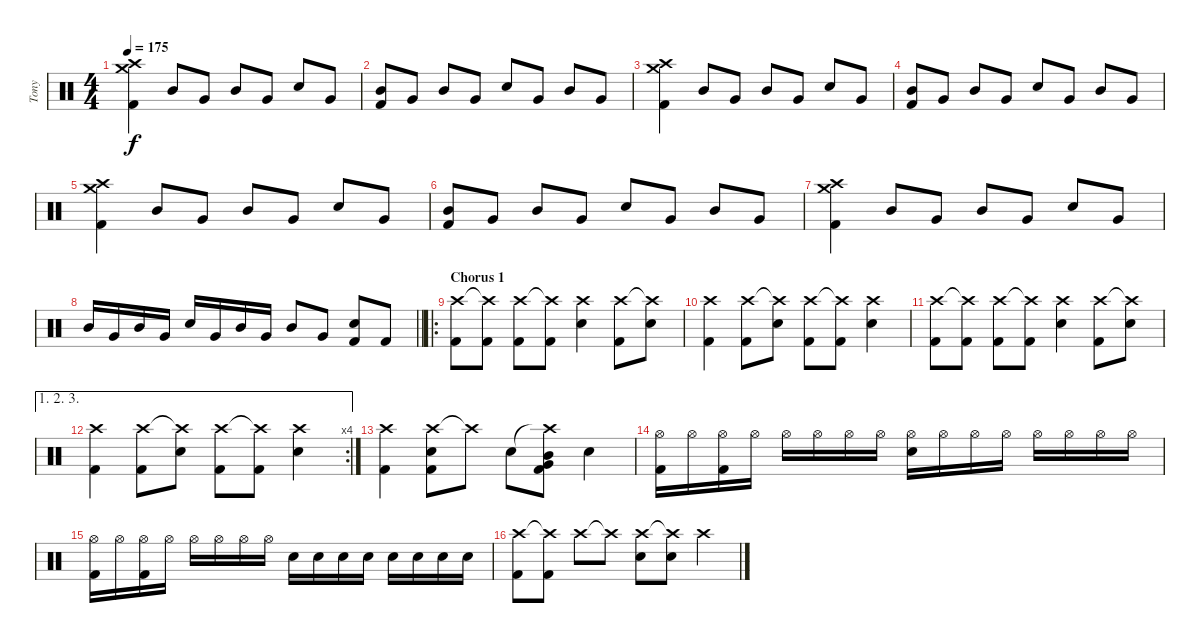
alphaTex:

\track ("Tony" "Tony") {instrument percussion}
\staff {score}
\articulation defaults
\ts (4 4)
\tempo 175
\clef neutral
\ks c
("Crash high (hit)" "Crash medium (hit)" "Kick (hit) 2").4{dy f} "Mid Tom (hit)".8 "Very Low Tom (hit)".8 "Mid Tom (hit)".8 "Very Low Tom (hit)".8 "Snare (hit) 2".8 "Very Low Tom (hit)".8 |
("Mid Tom (hit)" "Kick (hit) 2").8 "Very Low Tom (hit)".8 "Mid Tom (hit)".8 "Very Low Tom (hit)".8 "Snare (hit) 2".8 "Very Low Tom (hit)".8 "Mid Tom (hit)".8 "Very Low Tom (hit)".8 |
("Crash high (hit)" "Crash medium (hit)" "Kick (hit) 2").4 "Mid Tom (hit)".8 "Very Low Tom (hit)".8 "Mid Tom (hit)".8 "Very Low Tom (hit)".8 "Snare (hit) 2".8 "Very Low Tom (hit)".8 |
("Mid Tom (hit)" "Kick (hit) 2").8 "Very Low Tom (hit)".8 "Mid Tom (hit)".8 "Very Low Tom (hit)".8 "Snare (hit) 2".8 "Very Low Tom (hit)".8 "Mid Tom (hit)".8 "Very Low Tom (hit)".8 |
("Crash high (hit)" "Crash medium (hit)" "Kick (hit) 2").4 "Mid Tom (hit)".8 "Very Low Tom (hit)".8 "Mid Tom (hit)".8 "Very Low Tom (hit)".8 "Snare (hit) 2".8 "Very Low Tom (hit)".8 |
("Mid Tom (hit)" "Kick (hit) 2").8 "Very Low Tom (hit)".8 "Mid Tom (hit)".8 "Very Low Tom (hit)".8 "Snare (hit) 2".8 "Very Low Tom (hit)".8 "Mid Tom (hit)".8 "Very Low Tom (hit)".8 |
("Crash high (hit)" "Crash medium (hit)" "Kick (hit) 2").4 "Mid Tom (hit)".8 "Very Low Tom (hit)".8 "Mid Tom (hit)".8 "Very Low Tom (hit)".8 "Snare (hit) 2".8 "Very Low Tom (hit)".8 |
\barLineRight lightlight "Mid Tom (hit)".16 "Very Low Tom (hit)".16 "Mid Tom (hit)".16 "Very Low Tom (hit)".16 "Snare (hit) 2".16 "Very Low Tom (hit)".16 "Mid Tom (hit)".16 "Very Low Tom (hit)".16 "Mid Tom (hit)".8 "Very Low Tom (hit)".8
("Snare (hit) 2" "Kick (hit) 2").8 "Kick (hit) 2".8 |
\ro
\section ("" "Chorus 1")
("Crash high (hit)" "Kick (hit) 2").8 ("Crash high (hit)"{t} "Kick (hit) 2").8 ("Crash high (hit)" "Kick (hit) 2").8 ("Crash high (hit)"{t} "Kick (hit) 2").8 ("Crash high (hit)" "Snare (hit) 2").4 ("Crash high (hit)" "Kick (hit) 2").8 ("Crash high (hit)"{t} "Snare (hit) 2").8 |
("Crash high (hit)" "Kick (hit) 2").4 ("Crash high (hit)" "Kick (hit) 2").8 ("Crash high (hit)"{t} "Snare (hit) 2").8 ("Crash high (hit)" "Kick (hit) 2").8 ("Crash high (hit)"{t} "Kick (hit) 2").8 ("Crash high (hit)" "Snare (hit) 2").4 |
("Crash high (hit)" "Kick (hit) 2").8 ("Crash high (hit)"{t} "Kick (hit) 2").8 ("Crash high (hit)" "Kick (hit) 2").8 ("Crash high (hit)"{t} "Kick (hit) 2").8 ("Crash high (hit)" "Snare (hit) 2").4 ("Crash high (hit)" "Kick (hit) 2").8 ("Crash high (hit)"{t} "Snare (hit) 2").8 |
\ae (1 2 3)
\rc 4
("Crash high (hit)" "Kick (hit) 2").4 ("Crash high (hit)" "Kick (hit) 2").8 ("Crash high (hit)"{t} "Snare (hit) 2").8 ("Crash high (hit)" "Kick (hit) 2").8 ("Crash high (hit)"{t} "Kick (hit) 2").8 ("Crash high (hit)" "Snare (hit) 2").4 |
("Crash high (hit)" "Kick (hit) 2").4 ("Crash high (hit)" "Snare (hit) 2" "Kick (hit) 2").8 "Crash high (hit)"{t}.8 "Snare (hit) 2".8 ("Crash high (hit)"{t} "Mid Tom (hit)" "Very Low Tom (hit)" "Kick (hit) 2").8 "Snare (hit) 2".4 |
("Hi-Hat (open)" "Kick (hit) 2").16 "Hi-Hat (open)".16 ("Hi-Hat (open)" "Kick (hit) 2").16 "Hi-Hat (open)".16 "Hi-Hat (open)".16 "Hi-Hat (open)".16 "Hi-Hat (open)".16 "Hi-Hat (open)".16 ("Hi-Hat (open)" "Snare (hit) 2").16 "Hi-Hat (open)".16 "Hi-Hat (open)".16 "Hi-Hat (open)".16 "Hi-Hat (open)".16 "Hi-Hat (open)".16 "Hi-Hat (open)".16 "Hi-Hat (open)".16 |
("Hi-Hat (open)" "Kick (hit) 2").16 "Hi-Hat (open)".16 ("Hi-Hat (open)" "Kick (hit) 2").16 "Hi-Hat (open)".16 "Hi-Hat (open)".16 "Hi-Hat (open)".16 "Hi-Hat (open)".16 "Hi-Hat (open)".16 "Snare (hit) 2".16 "Snare (hit) 2".16 "Snare (hit) 2".16 "Snare (hit) 2".16 "Snare (hit) 2".16 "Snare (hit) 2".16 "Snare (hit) 2".16 "Snare (hit) 2".16 |
("Crash high (hit)" "Kick (hit) 2").8 ("Crash high (hit)"{t} "Kick (hit) 2").8 "Crash high (hit)".8 "Crash high (hit)"{t}.8 ("Crash high (hit)" "Snare (hit) 2").8 ("Crash high (hit)"{t} "Snare (hit) 2").8 "Crash high (hit)".4
